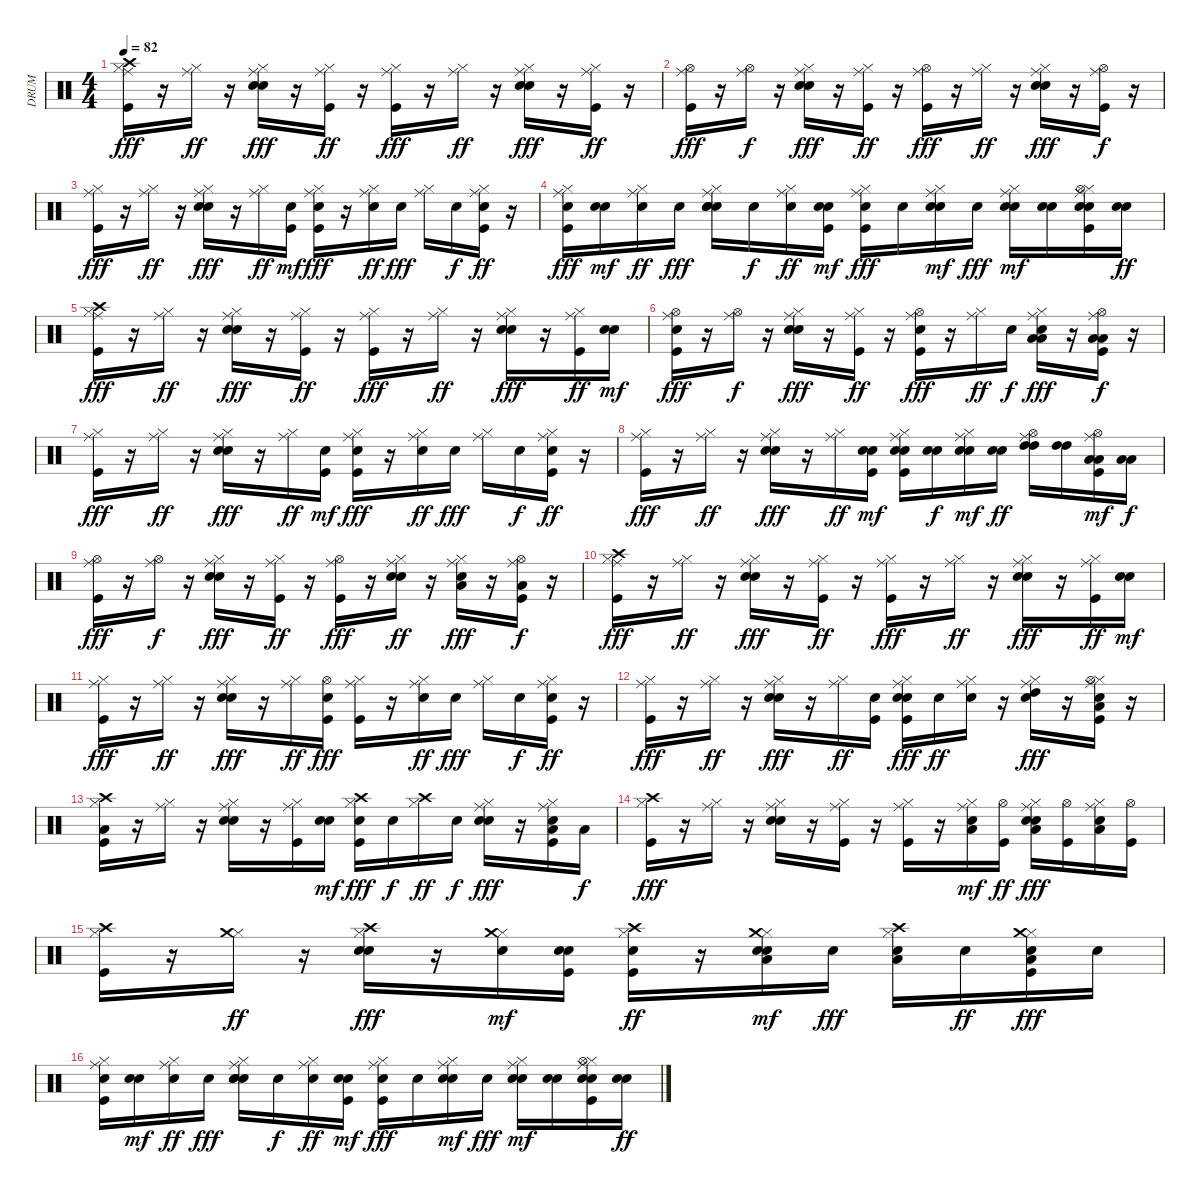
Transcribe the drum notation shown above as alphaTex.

\track ("DRUM" "DRUM") {instrument percussion}
\staff {score}
\articulation defaults
\ts (4 4)
\tempo 82
\clef neutral
\ks c
("Kick (hit)" "Hi-Hat (closed)" "Ride (middle)" "Crash high (hit)").16{dy fff} r.16 ("Hi-Hat (closed)" "Ride (middle)").16{dy ff} r.16 ("Snare (hit) 2" "Hi-Hat (closed)" "Ride (middle)" "Hand Clap (hit)").16{dy fff} r.16 ("Kick (hit)" "Hi-Hat (closed)" "Ride (middle)").16{dy ff} r.16 ("Kick (hit)" "Hi-Hat (closed)" "Ride (middle)").16{dy fff} r.16 ("Hi-Hat (closed)" "Ride (middle)").16{dy ff} r.16 ("Snare (hit) 2" "Hi-Hat (closed)" "Ride (middle)" "Hand Clap (hit)").16{dy fff} r.16 ("Kick (hit)" "Hi-Hat (closed)" "Ride (middle)").16{dy ff} r.16 |
("Kick (hit)" "Hi-Hat (open)" "Ride (middle)").16{dy fff} r.16 ("Hi-Hat (open)" "Ride (middle)").16{dy f} r.16 ("Snare (hit) 2" "Hi-Hat (closed)" "Ride (middle)" "Hand Clap (hit)").16{dy fff} r.16 ("Kick (hit)" "Hi-Hat (closed)" "Ride (middle)").16{dy ff} r.16 ("Kick (hit)" "Hi-Hat (open)" "Ride (middle)").16{dy fff} r.16 ("Hi-Hat (closed)" "Ride (middle)").16{dy ff} r.16 ("Snare (hit) 2" "Hi-Hat (closed)" "Ride (middle)" "Hand Clap (hit)").16{dy fff} r.16 ("Kick (hit)" "Hi-Hat (open)" "Ride (middle)").16{dy f} r.16 |
("Kick (hit)" "Hi-Hat (closed)" "Ride (middle)").16{dy fff} r.16 ("Hi-Hat (closed)" "Ride (middle)").16{dy ff} r.16 ("Snare (hit) 2" "Hi-Hat (closed)" "Ride (middle)" "Hand Clap (hit)").16{dy fff} r.16 ("Hi-Hat (closed)" "Ride (middle)").16{dy ff} ("Kick (hit)" "Snare (hit) 2").16{dy mf} ("Kick (hit)" "Snare (hit) 2" "Hi-Hat (closed)" "Ride (middle)").16{dy fff} r.16 ("Snare (hit) 2" "Hi-Hat (closed)" "Ride (middle)").16{dy ff} "Snare (hit) 2".16{dy fff} ("Hi-Hat (closed)" "Ride (middle)").16 "Snare (hit) 2".16{dy f} ("Kick (hit)" "Snare (hit) 2" "Hi-Hat (closed)" "Ride (middle)").16{dy ff} r.16 |
("Kick (hit)" "Snare (hit) 2" "Hi-Hat (closed)" "Ride (middle)").16{dy fff} ("Snare (hit) 2" "Snare (hit) 2").16{dy mf} ("Snare (hit) 2" "Hi-Hat (closed)" "Ride (middle)").16{dy ff} "Snare (hit) 2".16{dy fff} ("Snare (hit) 2" "Hi-Hat (closed)" "Ride (middle)" "Hand Clap (hit)" "Snare (hit) 2").16 "Snare (hit) 2".16{dy f} ("Snare (hit) 2" "Hi-Hat (closed)" "Ride (middle)").16{dy ff} ("Kick (hit)" "Snare (hit) 2" "Snare (hit) 2").16{dy mf} ("Kick (hit)" "Snare (hit) 2" "Hi-Hat (closed)" "Ride (middle)").16{dy fff} "Snare (hit) 2".16 ("Snare (hit) 2" "Hi-Hat (closed)" "Ride (middle)" "Snare (hit) 2").16{dy mf} "Snare (hit) 2".16{dy fff} ("Snare (hit) 2" "Hi-Hat (closed)" "Ride (middle)" "Snare (hit) 2").16{dy mf} ("Snare (hit) 2" "Snare (hit) 2").16 ("Kick (hit)" "Snare (hit) 2" "Hi-Hat (closed)" "Hi-Hat (open)" "Ride (middle)" "Snare (hit) 2").16 ("Snare (hit) 2" "Snare (hit) 2").16{dy ff} |
("Kick (hit)" "Hi-Hat (closed)" "Ride (middle)" "Crash high (hit)").16{dy fff} r.16 ("Hi-Hat (closed)" "Ride (middle)").16{dy ff} r.16 ("Snare (hit) 2" "Hi-Hat (closed)" "Ride (middle)" "Hand Clap (hit)").16{dy fff} r.16 ("Kick (hit)" "Hi-Hat (closed)" "Ride (middle)").16{dy ff} r.16 ("Kick (hit)" "Hi-Hat (closed)" "Ride (middle)").16{dy fff} r.16 ("Hi-Hat (closed)" "Ride (middle)").16{dy ff} r.16 ("Snare (hit) 2" "Hi-Hat (closed)" "Ride (middle)" "Hand Clap (hit)").16{dy fff} r.16 ("Kick (hit)" "Hi-Hat (closed)" "Ride (middle)").16{dy ff} ("Snare (hit) 2" "Snare (hit) 2").16{dy mf} |
("Kick (hit)" "Snare (hit) 2" "Hi-Hat (open)" "Ride (middle)").16{dy fff} r.16 ("Hi-Hat (open)" "Ride (middle)").16{dy f} r.16 ("Snare (hit) 2" "Hi-Hat (closed)" "Ride (middle)" "Hand Clap (hit)").16{dy fff} r.16 ("Kick (hit)" "Hi-Hat (closed)" "Ride (middle)").16{dy ff} r.16 ("Kick (hit)" "Snare (hit) 2" "Hi-Hat (open)" "Ride (middle)").16{dy fff} r.16 ("Hi-Hat (closed)" "Ride (middle)").16{dy ff} "Snare (hit) 2".16{dy f} ("Hi-Hat (closed)" "Ride (middle)" "Low Tom (hit)" "Hand Clap (hit)" "Low Tom (hit)").16{dy fff} r.16 ("Kick (hit)" "Hi-Hat (open)" "Ride (middle)" "Low Floor Tom (hit)" "Low Floor Tom (hit)").16{dy f} r.16 |
("Kick (hit)" "Hi-Hat (closed)" "Ride (middle)").16{dy fff} r.16 ("Hi-Hat (closed)" "Ride (middle)").16{dy ff} r.16 ("Snare (hit) 2" "Hi-Hat (closed)" "Ride (middle)" "Hand Clap (hit)").16{dy fff} r.16 ("Hi-Hat (closed)" "Ride (middle)").16{dy ff} ("Kick (hit)" "Snare (hit) 2").16{dy mf} ("Kick (hit)" "Snare (hit) 2" "Hi-Hat (closed)" "Ride (middle)").16{dy fff} r.16 ("Snare (hit) 2" "Hi-Hat (closed)" "Ride (middle)").16{dy ff} "Snare (hit) 2".16{dy fff} ("Hi-Hat (closed)" "Ride (middle)").16 "Snare (hit) 2".16{dy f} ("Kick (hit)" "Snare (hit) 2" "Hi-Hat (closed)" "Ride (middle)").16{dy ff} r.16 |
("Kick (hit)" "Hi-Hat (closed)" "Ride (middle)").16{dy fff} r.16 ("Hi-Hat (closed)" "Ride (middle)").16{dy ff} r.16 ("Snare (hit) 2" "Hi-Hat (closed)" "Ride (middle)" "Hand Clap (hit)").16{dy fff} r.16 ("Hi-Hat (closed)" "Ride (middle)").16{dy ff} ("Kick (hit)" "Snare (hit) 2" "Snare (hit) 2").16{dy mf} ("Kick (hit)" "Snare (hit) 2" "Hi-Hat (closed)" "Ride (middle)" "Snare (hit) 2").16 ("Snare (hit) 2" "Snare (hit) 2").16{dy f} ("Snare (hit) 2" "Hi-Hat (closed)" "Ride (middle)" "Snare (hit) 2").16{dy mf} ("Snare (hit) 2" "Snare (hit) 2").16{dy ff} ("Hi-Hat (open)" "Ride (middle)" "High Tom (hit)" "High Tom (hit)").16 ("High Tom (hit)" "High Tom (hit)").16 ("Kick (hit)" "Hi-Hat (open)" "Ride (middle)" "Low Tom (hit)" "Low Tom (hit)").16{dy mf} ("Low Tom (hit)" "Low Floor Tom (hit)").16{dy f} |
("Kick (hit)" "Hi-Hat (open)" "Ride (middle)").16{dy fff} r.16 ("Hi-Hat (open)" "Ride (middle)").16{dy f} r.16 ("Snare (hit) 2" "Hi-Hat (closed)" "Ride (middle)" "Hand Clap (hit)").16{dy fff} r.16 ("Kick (hit)" "Hi-Hat (closed)" "Ride (middle)").16{dy ff} r.16 ("Kick (hit)" "Hi-Hat (open)" "Ride (middle)").16{dy fff} r.16 ("Snare (hit) 2" "Hi-Hat (closed)" "Ride (middle)" "Snare (hit) 2").16{dy ff} r.16 ("Hi-Hat (closed)" "Ride (middle)" "Low Tom (hit)" "Hand Clap (hit)").16{dy fff} r.16 ("Kick (hit)" "Hi-Hat (open)" "Ride (middle)" "Low Floor Tom (hit)").16{dy f} r.16 |
("Kick (hit)" "Hi-Hat (closed)" "Ride (middle)" "Crash high (hit)").16{dy fff} r.16 ("Hi-Hat (closed)" "Ride (middle)").16{dy ff} r.16 ("Snare (hit) 2" "Hi-Hat (closed)" "Ride (middle)" "Hand Clap (hit)").16{dy fff} r.16 ("Kick (hit)" "Hi-Hat (closed)" "Ride (middle)").16{dy ff} r.16 ("Kick (hit)" "Hi-Hat (closed)" "Ride (middle)").16{dy fff} r.16 ("Hi-Hat (closed)" "Ride (middle)").16{dy ff} r.16 ("Snare (hit) 2" "Hi-Hat (closed)" "Ride (middle)" "Hand Clap (hit)").16{dy fff} r.16 ("Kick (hit)" "Hi-Hat (closed)" "Ride (middle)").16{dy ff} ("Snare (hit) 2" "Snare (hit) 2").16{dy mf} |
("Kick (hit)" "Hi-Hat (closed)" "Ride (middle)").16{dy fff} r.16 ("Hi-Hat (closed)" "Ride (middle)").16{dy ff} r.16 ("Snare (hit) 2" "Hi-Hat (closed)" "Ride (middle)" "Hand Clap (hit)").16{dy fff} r.16 ("Hi-Hat (closed)" "Ride (middle)").16{dy ff} ("Kick (hit)" "Snare (hit) 2" "Hi-Hat (open)").16{dy fff} ("Kick (hit)" "Hi-Hat (closed)" "Ride (middle)").16 r.16 ("Snare (hit) 2" "Hi-Hat (closed)" "Ride (middle)").16{dy ff} "Snare (hit) 2".16{dy fff} ("Hi-Hat (closed)" "Ride (middle)").16 "Snare (hit) 2".16{dy f} ("Kick (hit)" "Snare (hit) 2" "Hi-Hat (closed)" "Ride (middle)").16{dy ff} r.16 |
("Kick (hit)" "Hi-Hat (closed)" "Ride (middle)").16{dy fff} r.16 ("Hi-Hat (closed)" "Ride (middle)").16{dy ff} r.16 ("Snare (hit) 2" "Hi-Hat (closed)" "Ride (middle)" "Hand Clap (hit)").16{dy fff} r.16 ("Hi-Hat (closed)" "Ride (middle)").16{dy ff} ("Kick (hit)" "Snare (hit) 2").16 ("Kick (hit)" "Snare (hit) 2" "Hi-Hat (closed)" "Ride (middle)" "Snare (hit) 2").16{dy fff} "Snare (hit) 2".16{dy ff} ("Snare (hit) 2" "Hi-Hat (closed)" "Ride (middle)").16 r.16 ("Snare (hit) 2" "Hi-Hat (closed)" "Ride (middle)" "High Tom (hit)").16{dy fff} r.16 ("Snare (hit) 2" "Kick (hit)" "Hi-Hat (closed)" "Hi-Hat (open)" "Ride (middle)" "Low Tom (hit)").16 r.16 |
("Low Floor Tom (hit)" "Kick (hit)" "Hi-Hat (closed)" "Crash high (hit)").16 r.16 ("Hi-Hat (closed)" "Ride (middle)").16 r.16 ("Snare (hit) 2" "Hi-Hat (closed)" "Ride (middle)" "Hand Clap (hit)").16 r.16 ("Kick (hit)" "Hi-Hat (closed)" "Ride (middle)").16 ("Snare (hit) 2" "Snare (hit) 2").16{dy mf} ("Kick (hit)" "Snare (hit) 2" "Hi-Hat (closed)" "Crash high (hit)").16{dy fff} "Snare (hit) 2".16{dy f} ("Hi-Hat (closed)" "Crash high (hit)").16{dy ff} "Snare (hit) 2".16{dy f} ("Snare (hit) 2" "Hi-Hat (closed)" "Ride (middle)" "Hand Clap (hit)").16{dy fff} r.16 ("Snare (hit) 2" "Kick (hit)" "Hi-Hat (closed)" "Ride (middle)" "Low Tom (hit)").16 "Low Floor Tom (hit)".16{dy f} |
("Kick (hit)" "Hi-Hat (closed)" "Crash high (hit)").16{dy fff} r.16 ("Hi-Hat (closed)" "Ride (middle)").16 r.16 ("Snare (hit) 2" "Hi-Hat (closed)" "Ride (middle)" "Hand Clap (hit)").16 r.16 ("Kick (hit)" "Hi-Hat (closed)" "Ride (middle)").16 r.16 ("Kick (hit)" "Hi-Hat (closed)" "Ride (middle)").16 r.16 ("Snare (hit) 2" "Hi-Hat (closed)" "Ride (middle)" "Low Floor Tom (hit)").16{dy mf} ("Kick (hit)" "Hi-Hat (open)").16{dy ff} ("Snare (hit) 2" "Hi-Hat (closed)" "Ride (middle)" "Low Floor Tom (hit)" "Hand Clap (hit)").16{dy fff} ("Kick (hit)" "Hi-Hat (open)").16 ("Snare (hit) 2" "Hi-Hat (closed)" "Ride (middle)" "Low Floor Tom (hit)").16 ("Kick (hit)" "Hi-Hat (open)").16 |
("Kick (hit)" "Hi-Hat (closed)" "Crash high (hit)").16 r.16 ("Hi-Hat (closed)" "Crash medium (hit)").16{dy ff} r.16 ("Snare (hit) 2" "Hi-Hat (closed)" "Crash high (hit)" "Hand Clap (hit)").16{dy fff} r.16 ("Hi-Hat (closed)" "Crash medium (hit)" "Snare (hit) 2").16{dy mf} ("Kick (hit)" "Snare (hit) 2" "Snare (hit) 2").16 ("Kick (hit)" "Snare (hit) 2" "Hi-Hat (closed)" "Crash high (hit)").16{dy ff} r.16 ("Snare (hit) 2" "Hi-Hat (closed)" "Crash medium (hit)" "Low Floor Tom (hit)" "Snare (hit) 2").16{dy mf} "Snare (hit) 2".16{dy fff} ("Snare (hit) 2" "Hi-Hat (closed)" "Crash high (hit)" "Low Floor Tom (hit)").16 "Snare (hit) 2".16{dy ff} ("Kick (hit)" "Snare (hit) 2" "Hi-Hat (closed)" "Crash medium (hit)" "Low Floor Tom (hit)").16{dy fff} "Snare (hit) 2".16 |
("Kick (hit)" "Snare (hit) 2" "Hi-Hat (closed)" "Ride (middle)").16 ("Snare (hit) 2" "Snare (hit) 2").16{dy mf} ("Snare (hit) 2" "Hi-Hat (closed)" "Ride (middle)").16{dy ff} "Snare (hit) 2".16{dy fff} ("Snare (hit) 2" "Hi-Hat (closed)" "Ride (middle)" "Hand Clap (hit)" "Snare (hit) 2").16 "Snare (hit) 2".16{dy f} ("Snare (hit) 2" "Hi-Hat (closed)" "Ride (middle)").16{dy ff} ("Kick (hit)" "Snare (hit) 2" "Snare (hit) 2").16{dy mf} ("Kick (hit)" "Snare (hit) 2" "Hi-Hat (closed)" "Ride (middle)").16{dy fff} "Snare (hit) 2".16 ("Snare (hit) 2" "Hi-Hat (closed)" "Ride (middle)" "Snare (hit) 2").16{dy mf} "Snare (hit) 2".16{dy fff} ("Snare (hit) 2" "Hi-Hat (closed)" "Ride (middle)" "Snare (hit) 2").16{dy mf} ("Snare (hit) 2" "Snare (hit) 2").16 ("Kick (hit)" "Snare (hit) 2" "Hi-Hat (closed)" "Hi-Hat (open)" "Ride (middle)" "Snare (hit) 2").16 ("Snare (hit) 2" "Snare (hit) 2").16{dy ff}
